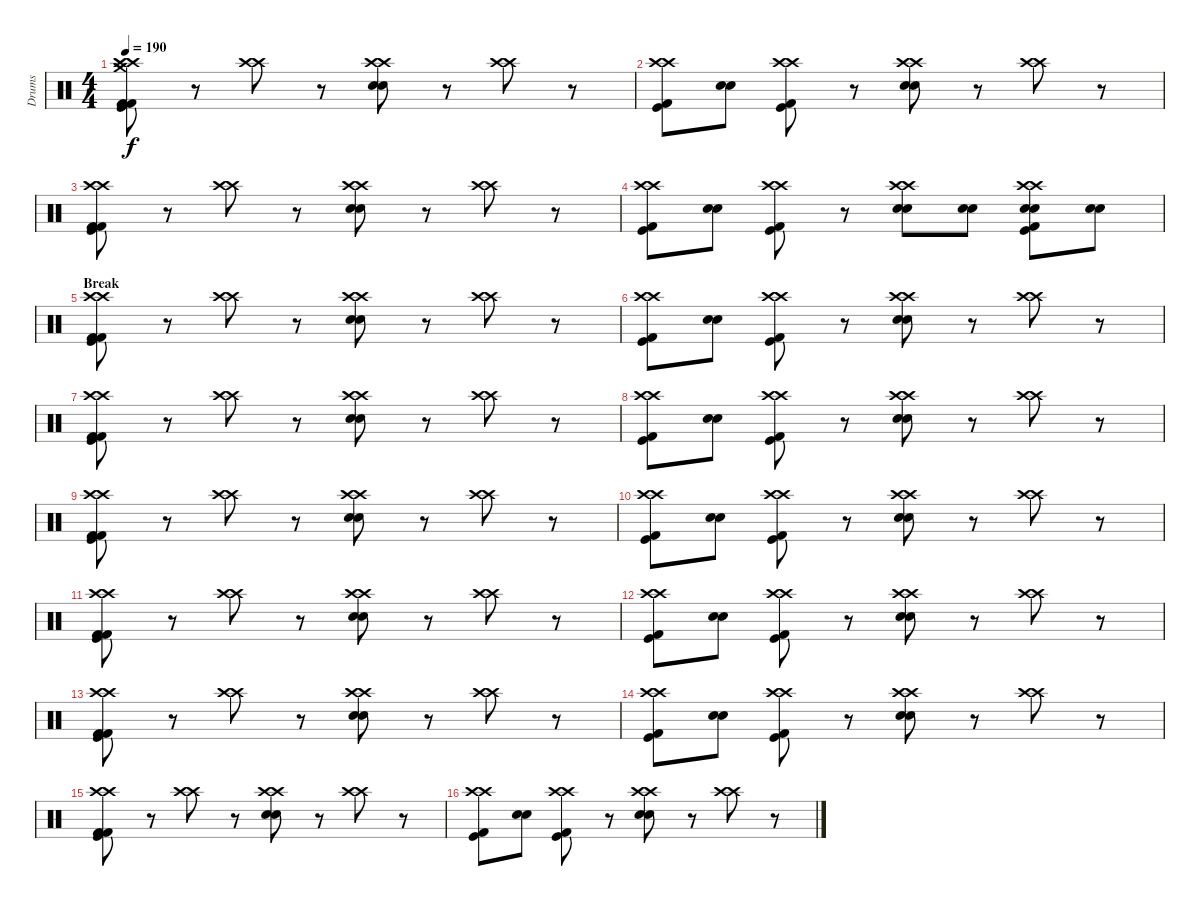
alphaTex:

\track ("Drums" "Drums") {instrument percussion}
\staff {score}
\articulation defaults
\ts (4 4)
\tempo 190
\clef neutral
\ks c
("Crash high (hit)" "Crash high (hit)" "Crash medium (hit)" "Kick (hit) 2" "Kick (hit) 2" "Kick (hit)").8{dy f} r.8 ("Crash high (hit)" "Crash high (hit)").8 r.8 ("Crash high (hit)" "Crash high (hit)" "Electric Snare (hit)" "Electric Snare (hit)").8 r.8 ("Crash high (hit)" "Crash high (hit)").8 r.8 |
("Crash high (hit)" "Crash high (hit)" "Kick (hit) 2" "Kick (hit)").8 ("Electric Snare (hit)" "Electric Snare (hit)").8 ("Crash high (hit)" "Crash high (hit)" "Kick (hit) 2" "Kick (hit)").8 r.8 ("Crash high (hit)" "Crash high (hit)" "Electric Snare (hit)" "Electric Snare (hit)").8 r.8 ("Crash high (hit)" "Crash high (hit)").8 r.8 |
("Crash high (hit)" "Crash high (hit)" "Kick (hit) 2" "Kick (hit) 2" "Kick (hit)").8 r.8 ("Crash high (hit)" "Crash high (hit)").8 r.8 ("Crash high (hit)" "Crash high (hit)" "Electric Snare (hit)" "Electric Snare (hit)").8 r.8 ("Crash high (hit)" "Crash high (hit)").8 r.8 |
("Crash high (hit)" "Crash high (hit)" "Kick (hit) 2" "Kick (hit)").8 ("Electric Snare (hit)" "Electric Snare (hit)").8 ("Crash high (hit)" "Crash high (hit)" "Kick (hit) 2" "Kick (hit)").8 r.8 ("Crash high (hit)" "Crash high (hit)" "Electric Snare (hit)" "Electric Snare (hit)").8 ("Electric Snare (hit)" "Electric Snare (hit)").8 ("Crash high (hit)" "Crash high (hit)" "Electric Snare (hit)" "Electric Snare (hit)" "Kick (hit) 2" "Kick (hit)").8 ("Electric Snare (hit)" "Electric Snare (hit)").8 |
\section ("" "Break")
("Crash high (hit)" "Crash high (hit)" "Kick (hit) 2" "Kick (hit) 2" "Kick (hit)").8 r.8 ("Crash high (hit)" "Crash high (hit)").8 r.8 ("Crash high (hit)" "Crash high (hit)" "Electric Snare (hit)" "Electric Snare (hit)").8 r.8 ("Crash high (hit)" "Crash high (hit)").8 r.8 |
("Crash high (hit)" "Crash high (hit)" "Kick (hit) 2" "Kick (hit)").8 ("Electric Snare (hit)" "Electric Snare (hit)").8 ("Crash high (hit)" "Crash high (hit)" "Kick (hit) 2" "Kick (hit)").8 r.8 ("Crash high (hit)" "Crash high (hit)" "Electric Snare (hit)" "Electric Snare (hit)").8 r.8 ("Crash high (hit)" "Crash high (hit)").8 r.8 |
("Crash high (hit)" "Crash high (hit)" "Kick (hit) 2" "Kick (hit) 2" "Kick (hit)").8 r.8 ("Crash high (hit)" "Crash high (hit)").8 r.8 ("Crash high (hit)" "Crash high (hit)" "Electric Snare (hit)" "Electric Snare (hit)").8 r.8 ("Crash high (hit)" "Crash high (hit)").8 r.8 |
("Crash high (hit)" "Crash high (hit)" "Kick (hit) 2" "Kick (hit)").8 ("Electric Snare (hit)" "Electric Snare (hit)").8 ("Crash high (hit)" "Crash high (hit)" "Kick (hit) 2" "Kick (hit)").8 r.8 ("Crash high (hit)" "Crash high (hit)" "Electric Snare (hit)" "Electric Snare (hit)").8 r.8 ("Crash high (hit)" "Crash high (hit)").8 r.8 |
("Crash high (hit)" "Crash high (hit)" "Kick (hit) 2" "Kick (hit) 2" "Kick (hit)").8 r.8 ("Crash high (hit)" "Crash high (hit)").8 r.8 ("Crash high (hit)" "Crash high (hit)" "Electric Snare (hit)" "Electric Snare (hit)").8 r.8 ("Crash high (hit)" "Crash high (hit)").8 r.8 |
("Crash high (hit)" "Crash high (hit)" "Kick (hit) 2" "Kick (hit)").8 ("Electric Snare (hit)" "Electric Snare (hit)").8 ("Crash high (hit)" "Crash high (hit)" "Kick (hit) 2" "Kick (hit)").8 r.8 ("Crash high (hit)" "Crash high (hit)" "Electric Snare (hit)" "Electric Snare (hit)").8 r.8 ("Crash high (hit)" "Crash high (hit)").8 r.8 |
("Crash high (hit)" "Crash high (hit)" "Kick (hit) 2" "Kick (hit) 2" "Kick (hit)").8 r.8 ("Crash high (hit)" "Crash high (hit)").8 r.8 ("Crash high (hit)" "Crash high (hit)" "Electric Snare (hit)" "Electric Snare (hit)").8 r.8 ("Crash high (hit)" "Crash high (hit)").8 r.8 |
("Crash high (hit)" "Crash high (hit)" "Kick (hit) 2" "Kick (hit)").8 ("Electric Snare (hit)" "Electric Snare (hit)").8 ("Crash high (hit)" "Crash high (hit)" "Kick (hit) 2" "Kick (hit)").8 r.8 ("Crash high (hit)" "Crash high (hit)" "Electric Snare (hit)" "Electric Snare (hit)").8 r.8 ("Crash high (hit)" "Crash high (hit)").8 r.8 |
("Crash high (hit)" "Crash high (hit)" "Kick (hit) 2" "Kick (hit) 2" "Kick (hit)").8 r.8 ("Crash high (hit)" "Crash high (hit)").8 r.8 ("Crash high (hit)" "Crash high (hit)" "Electric Snare (hit)" "Electric Snare (hit)").8 r.8 ("Crash high (hit)" "Crash high (hit)").8 r.8 |
("Crash high (hit)" "Crash high (hit)" "Kick (hit) 2" "Kick (hit)").8 ("Electric Snare (hit)" "Electric Snare (hit)").8 ("Crash high (hit)" "Crash high (hit)" "Kick (hit) 2" "Kick (hit)").8 r.8 ("Crash high (hit)" "Crash high (hit)" "Electric Snare (hit)" "Electric Snare (hit)").8 r.8 ("Crash high (hit)" "Crash high (hit)").8 r.8 |
("Crash high (hit)" "Crash high (hit)" "Kick (hit) 2" "Kick (hit) 2" "Kick (hit)").8 r.8 ("Crash high (hit)" "Crash high (hit)").8 r.8 ("Crash high (hit)" "Crash high (hit)" "Electric Snare (hit)" "Electric Snare (hit)").8 r.8 ("Crash high (hit)" "Crash high (hit)").8 r.8 |
("Crash high (hit)" "Crash high (hit)" "Kick (hit) 2" "Kick (hit)").8 ("Electric Snare (hit)" "Electric Snare (hit)").8 ("Crash high (hit)" "Crash high (hit)" "Kick (hit) 2" "Kick (hit)").8 r.8 ("Crash high (hit)" "Crash high (hit)" "Electric Snare (hit)" "Electric Snare (hit)").8 r.8 ("Crash high (hit)" "Crash high (hit)").8 r.8
